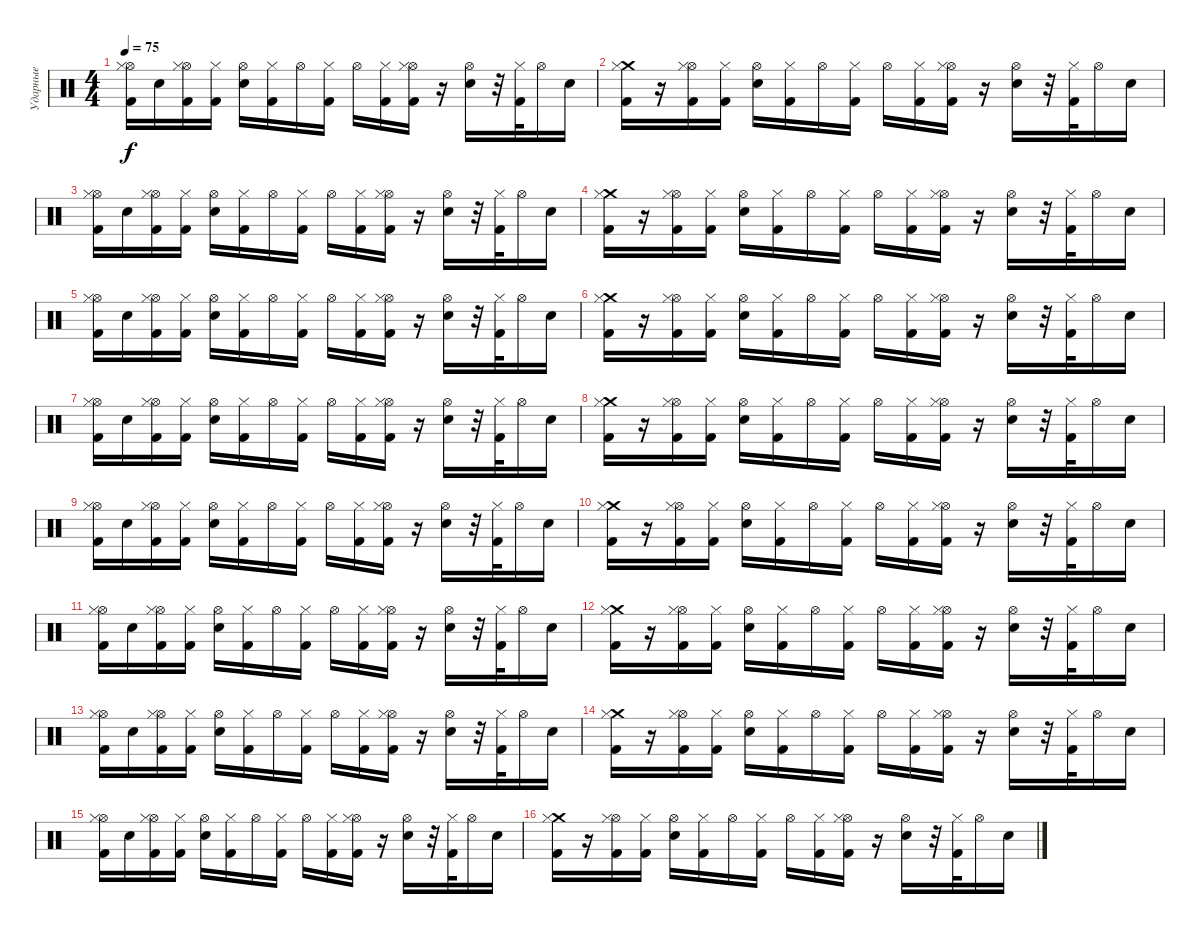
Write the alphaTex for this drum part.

\track ("Ударные" "Ударные") {instrument percussion}
\staff {score}
\articulation defaults
\ts (4 4)
\tempo 75
\clef neutral
\ks c
("Hi-Hat (open)" "Hi-Hat (closed)" "Kick (hit) 2").16{dy f} "Electric Snare (hit)".16 ("Hi-Hat (open)" "Hi-Hat (closed)" "Kick (hit) 2").16 ("Hi-Hat (closed)" "Kick (hit) 2").16 ("Hi-Hat (open)" "Electric Snare (hit)").16 ("Hi-Hat (closed)" "Kick (hit) 2").16 "Hi-Hat (open)".16 ("Hi-Hat (closed)" "Kick (hit) 2").16 "Hi-Hat (open)".16 ("Hi-Hat (closed)" "Kick (hit) 2").16 ("Hi-Hat (open)" "Hi-Hat (closed)" "Kick (hit) 2").16 r.16 ("Hi-Hat (open)" "Electric Snare (hit)").16 r.32 ("Hi-Hat (closed)" "Kick (hit) 2").32 "Hi-Hat (open)".16 "Electric Snare (hit)".16 |
("Crash medium (hit)" "Hi-Hat (closed)" "Kick (hit) 2").16 r.16 ("Hi-Hat (open)" "Hi-Hat (closed)" "Kick (hit) 2").16 ("Hi-Hat (closed)" "Kick (hit) 2").16 ("Hi-Hat (open)" "Electric Snare (hit)").16 ("Hi-Hat (closed)" "Kick (hit) 2").16 "Hi-Hat (open)".16 ("Hi-Hat (closed)" "Kick (hit) 2").16 "Hi-Hat (open)".16 ("Hi-Hat (closed)" "Kick (hit) 2").16 ("Hi-Hat (open)" "Hi-Hat (closed)" "Kick (hit) 2").16 r.16 ("Hi-Hat (open)" "Electric Snare (hit)").16 r.32 ("Hi-Hat (closed)" "Kick (hit) 2").32 "Hi-Hat (open)".16 "Electric Snare (hit)".16 |
("Hi-Hat (open)" "Hi-Hat (closed)" "Kick (hit) 2").16 "Electric Snare (hit)".16 ("Hi-Hat (open)" "Hi-Hat (closed)" "Kick (hit) 2").16 ("Hi-Hat (closed)" "Kick (hit) 2").16 ("Hi-Hat (open)" "Electric Snare (hit)").16 ("Hi-Hat (closed)" "Kick (hit) 2").16 "Hi-Hat (open)".16 ("Hi-Hat (closed)" "Kick (hit) 2").16 "Hi-Hat (open)".16 ("Hi-Hat (closed)" "Kick (hit) 2").16 ("Hi-Hat (open)" "Hi-Hat (closed)" "Kick (hit) 2").16 r.16 ("Hi-Hat (open)" "Electric Snare (hit)").16 r.32 ("Hi-Hat (closed)" "Kick (hit) 2").32 "Hi-Hat (open)".16 "Electric Snare (hit)".16 |
("Crash medium (hit)" "Hi-Hat (closed)" "Kick (hit) 2").16 r.16 ("Hi-Hat (open)" "Hi-Hat (closed)" "Kick (hit) 2").16 ("Hi-Hat (closed)" "Kick (hit) 2").16 ("Hi-Hat (open)" "Electric Snare (hit)").16 ("Hi-Hat (closed)" "Kick (hit) 2").16 "Hi-Hat (open)".16 ("Hi-Hat (closed)" "Kick (hit) 2").16 "Hi-Hat (open)".16 ("Hi-Hat (closed)" "Kick (hit) 2").16 ("Hi-Hat (open)" "Hi-Hat (closed)" "Kick (hit) 2").16 r.16 ("Hi-Hat (open)" "Electric Snare (hit)").16 r.32 ("Hi-Hat (closed)" "Kick (hit) 2").32 "Hi-Hat (open)".16 "Electric Snare (hit)".16 |
("Hi-Hat (open)" "Hi-Hat (closed)" "Kick (hit) 2").16 "Electric Snare (hit)".16 ("Hi-Hat (open)" "Hi-Hat (closed)" "Kick (hit) 2").16 ("Hi-Hat (closed)" "Kick (hit) 2").16 ("Hi-Hat (open)" "Electric Snare (hit)").16 ("Hi-Hat (closed)" "Kick (hit) 2").16 "Hi-Hat (open)".16 ("Hi-Hat (closed)" "Kick (hit) 2").16 "Hi-Hat (open)".16 ("Hi-Hat (closed)" "Kick (hit) 2").16 ("Hi-Hat (open)" "Hi-Hat (closed)" "Kick (hit) 2").16 r.16 ("Hi-Hat (open)" "Electric Snare (hit)").16 r.32 ("Hi-Hat (closed)" "Kick (hit) 2").32 "Hi-Hat (open)".16 "Electric Snare (hit)".16 |
("Crash medium (hit)" "Hi-Hat (closed)" "Kick (hit) 2").16 r.16 ("Hi-Hat (open)" "Hi-Hat (closed)" "Kick (hit) 2").16 ("Hi-Hat (closed)" "Kick (hit) 2").16 ("Hi-Hat (open)" "Electric Snare (hit)").16 ("Hi-Hat (closed)" "Kick (hit) 2").16 "Hi-Hat (open)".16 ("Hi-Hat (closed)" "Kick (hit) 2").16 "Hi-Hat (open)".16 ("Hi-Hat (closed)" "Kick (hit) 2").16 ("Hi-Hat (open)" "Hi-Hat (closed)" "Kick (hit) 2").16 r.16 ("Hi-Hat (open)" "Electric Snare (hit)").16 r.32 ("Hi-Hat (closed)" "Kick (hit) 2").32 "Hi-Hat (open)".16 "Electric Snare (hit)".16 |
("Hi-Hat (open)" "Hi-Hat (closed)" "Kick (hit) 2").16 "Electric Snare (hit)".16 ("Hi-Hat (open)" "Hi-Hat (closed)" "Kick (hit) 2").16 ("Hi-Hat (closed)" "Kick (hit) 2").16 ("Hi-Hat (open)" "Electric Snare (hit)").16 ("Hi-Hat (closed)" "Kick (hit) 2").16 "Hi-Hat (open)".16 ("Hi-Hat (closed)" "Kick (hit) 2").16 "Hi-Hat (open)".16 ("Hi-Hat (closed)" "Kick (hit) 2").16 ("Hi-Hat (open)" "Hi-Hat (closed)" "Kick (hit) 2").16 r.16 ("Hi-Hat (open)" "Electric Snare (hit)").16 r.32 ("Hi-Hat (closed)" "Kick (hit) 2").32 "Hi-Hat (open)".16 "Electric Snare (hit)".16 |
("Crash medium (hit)" "Hi-Hat (closed)" "Kick (hit) 2").16 r.16 ("Hi-Hat (open)" "Hi-Hat (closed)" "Kick (hit) 2").16 ("Hi-Hat (closed)" "Kick (hit) 2").16 ("Hi-Hat (open)" "Electric Snare (hit)").16 ("Hi-Hat (closed)" "Kick (hit) 2").16 "Hi-Hat (open)".16 ("Hi-Hat (closed)" "Kick (hit) 2").16 "Hi-Hat (open)".16 ("Hi-Hat (closed)" "Kick (hit) 2").16 ("Hi-Hat (open)" "Hi-Hat (closed)" "Kick (hit) 2").16 r.16 ("Hi-Hat (open)" "Electric Snare (hit)").16 r.32 ("Hi-Hat (closed)" "Kick (hit) 2").32 "Hi-Hat (open)".16 "Electric Snare (hit)".16 |
("Hi-Hat (open)" "Hi-Hat (closed)" "Kick (hit) 2").16 "Electric Snare (hit)".16 ("Hi-Hat (open)" "Hi-Hat (closed)" "Kick (hit) 2").16 ("Hi-Hat (closed)" "Kick (hit) 2").16 ("Hi-Hat (open)" "Electric Snare (hit)").16 ("Hi-Hat (closed)" "Kick (hit) 2").16 "Hi-Hat (open)".16 ("Hi-Hat (closed)" "Kick (hit) 2").16 "Hi-Hat (open)".16 ("Hi-Hat (closed)" "Kick (hit) 2").16 ("Hi-Hat (open)" "Hi-Hat (closed)" "Kick (hit) 2").16 r.16 ("Hi-Hat (open)" "Electric Snare (hit)").16 r.32 ("Hi-Hat (closed)" "Kick (hit) 2").32 "Hi-Hat (open)".16 "Electric Snare (hit)".16 |
("Crash medium (hit)" "Hi-Hat (closed)" "Kick (hit) 2").16 r.16 ("Hi-Hat (open)" "Hi-Hat (closed)" "Kick (hit) 2").16 ("Hi-Hat (closed)" "Kick (hit) 2").16 ("Hi-Hat (open)" "Electric Snare (hit)").16 ("Hi-Hat (closed)" "Kick (hit) 2").16 "Hi-Hat (open)".16 ("Hi-Hat (closed)" "Kick (hit) 2").16 "Hi-Hat (open)".16 ("Hi-Hat (closed)" "Kick (hit) 2").16 ("Hi-Hat (open)" "Hi-Hat (closed)" "Kick (hit) 2").16 r.16 ("Hi-Hat (open)" "Electric Snare (hit)").16 r.32 ("Hi-Hat (closed)" "Kick (hit) 2").32 "Hi-Hat (open)".16 "Electric Snare (hit)".16 |
("Hi-Hat (open)" "Hi-Hat (closed)" "Kick (hit) 2").16 "Electric Snare (hit)".16 ("Hi-Hat (open)" "Hi-Hat (closed)" "Kick (hit) 2").16 ("Hi-Hat (closed)" "Kick (hit) 2").16 ("Hi-Hat (open)" "Electric Snare (hit)").16 ("Hi-Hat (closed)" "Kick (hit) 2").16 "Hi-Hat (open)".16 ("Hi-Hat (closed)" "Kick (hit) 2").16 "Hi-Hat (open)".16 ("Hi-Hat (closed)" "Kick (hit) 2").16 ("Hi-Hat (open)" "Hi-Hat (closed)" "Kick (hit) 2").16 r.16 ("Hi-Hat (open)" "Electric Snare (hit)").16 r.32 ("Hi-Hat (closed)" "Kick (hit) 2").32 "Hi-Hat (open)".16 "Electric Snare (hit)".16 |
("Crash medium (hit)" "Hi-Hat (closed)" "Kick (hit) 2").16 r.16 ("Hi-Hat (open)" "Hi-Hat (closed)" "Kick (hit) 2").16 ("Hi-Hat (closed)" "Kick (hit) 2").16 ("Hi-Hat (open)" "Electric Snare (hit)").16 ("Hi-Hat (closed)" "Kick (hit) 2").16 "Hi-Hat (open)".16 ("Hi-Hat (closed)" "Kick (hit) 2").16 "Hi-Hat (open)".16 ("Hi-Hat (closed)" "Kick (hit) 2").16 ("Hi-Hat (open)" "Hi-Hat (closed)" "Kick (hit) 2").16 r.16 ("Hi-Hat (open)" "Electric Snare (hit)").16 r.32 ("Hi-Hat (closed)" "Kick (hit) 2").32 "Hi-Hat (open)".16 "Electric Snare (hit)".16 |
("Hi-Hat (open)" "Hi-Hat (closed)" "Kick (hit) 2").16 "Electric Snare (hit)".16 ("Hi-Hat (open)" "Hi-Hat (closed)" "Kick (hit) 2").16 ("Hi-Hat (closed)" "Kick (hit) 2").16 ("Hi-Hat (open)" "Electric Snare (hit)").16 ("Hi-Hat (closed)" "Kick (hit) 2").16 "Hi-Hat (open)".16 ("Hi-Hat (closed)" "Kick (hit) 2").16 "Hi-Hat (open)".16 ("Hi-Hat (closed)" "Kick (hit) 2").16 ("Hi-Hat (open)" "Hi-Hat (closed)" "Kick (hit) 2").16 r.16 ("Hi-Hat (open)" "Electric Snare (hit)").16 r.32 ("Hi-Hat (closed)" "Kick (hit) 2").32 "Hi-Hat (open)".16 "Electric Snare (hit)".16 |
("Crash medium (hit)" "Hi-Hat (closed)" "Kick (hit) 2").16 r.16 ("Hi-Hat (open)" "Hi-Hat (closed)" "Kick (hit) 2").16 ("Hi-Hat (closed)" "Kick (hit) 2").16 ("Hi-Hat (open)" "Electric Snare (hit)").16 ("Hi-Hat (closed)" "Kick (hit) 2").16 "Hi-Hat (open)".16 ("Hi-Hat (closed)" "Kick (hit) 2").16 "Hi-Hat (open)".16 ("Hi-Hat (closed)" "Kick (hit) 2").16 ("Hi-Hat (open)" "Hi-Hat (closed)" "Kick (hit) 2").16 r.16 ("Hi-Hat (open)" "Electric Snare (hit)").16 r.32 ("Hi-Hat (closed)" "Kick (hit) 2").32 "Hi-Hat (open)".16 "Electric Snare (hit)".16 |
("Hi-Hat (open)" "Hi-Hat (closed)" "Kick (hit) 2").16 "Electric Snare (hit)".16 ("Hi-Hat (open)" "Hi-Hat (closed)" "Kick (hit) 2").16 ("Hi-Hat (closed)" "Kick (hit) 2").16 ("Hi-Hat (open)" "Electric Snare (hit)").16 ("Hi-Hat (closed)" "Kick (hit) 2").16 "Hi-Hat (open)".16 ("Hi-Hat (closed)" "Kick (hit) 2").16 "Hi-Hat (open)".16 ("Hi-Hat (closed)" "Kick (hit) 2").16 ("Hi-Hat (open)" "Hi-Hat (closed)" "Kick (hit) 2").16 r.16 ("Hi-Hat (open)" "Electric Snare (hit)").16 r.32 ("Hi-Hat (closed)" "Kick (hit) 2").32 "Hi-Hat (open)".16 "Electric Snare (hit)".16 |
("Crash medium (hit)" "Hi-Hat (closed)" "Kick (hit) 2").16 r.16 ("Hi-Hat (open)" "Hi-Hat (closed)" "Kick (hit) 2").16 ("Hi-Hat (closed)" "Kick (hit) 2").16 ("Hi-Hat (open)" "Electric Snare (hit)").16 ("Hi-Hat (closed)" "Kick (hit) 2").16 "Hi-Hat (open)".16 ("Hi-Hat (closed)" "Kick (hit) 2").16 "Hi-Hat (open)".16 ("Hi-Hat (closed)" "Kick (hit) 2").16 ("Hi-Hat (open)" "Hi-Hat (closed)" "Kick (hit) 2").16 r.16 ("Hi-Hat (open)" "Electric Snare (hit)").16 r.32 ("Hi-Hat (closed)" "Kick (hit) 2").32 "Hi-Hat (open)".16 "Electric Snare (hit)".16
